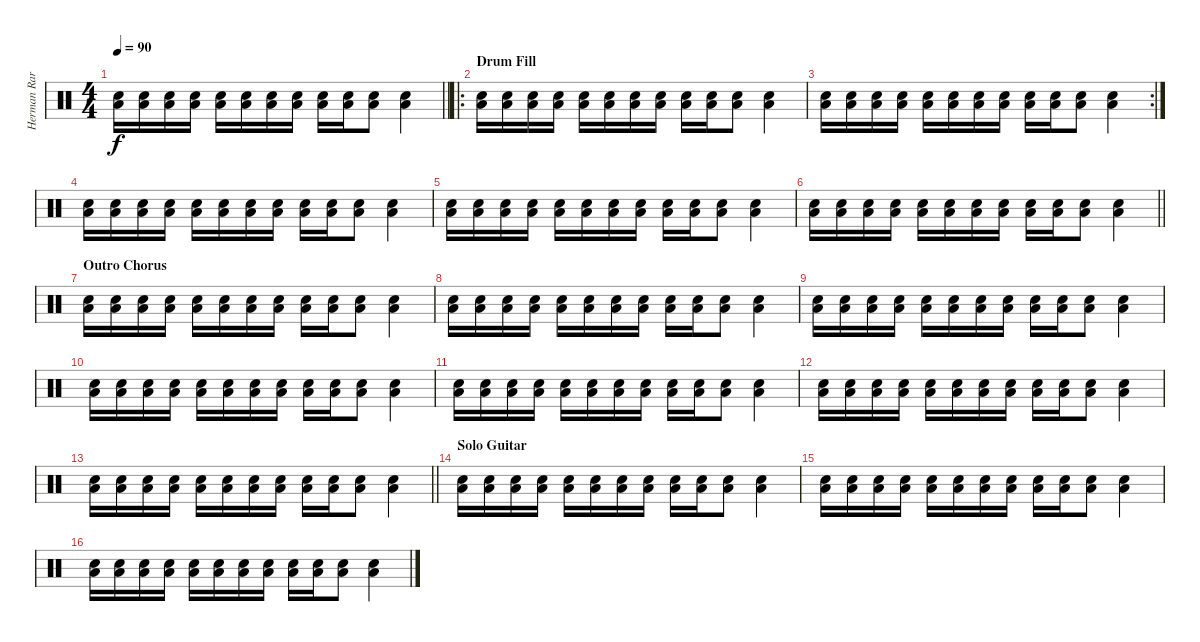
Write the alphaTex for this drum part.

\track ("Herman Rarebell (Drums)" "Herman Rar") {instrument percussion}
\staff {score}
\articulation defaults
\ts (4 4)
\tempo 90
\clef neutral
\barLineRight lightlight
\ks c
("Electric Snare (hit)" "Low Floor Tom (hit)").16{dy f} ("Electric Snare (hit)" "Low Floor Tom (hit)").16 ("Electric Snare (hit)" "Low Floor Tom (hit)").16 ("Electric Snare (hit)" "Low Floor Tom (hit)").16 ("Electric Snare (hit)" "Low Floor Tom (hit)").16 ("Electric Snare (hit)" "Low Floor Tom (hit)").16 ("Electric Snare (hit)" "Low Floor Tom (hit)").16 ("Electric Snare (hit)" "Low Floor Tom (hit)").16 ("Electric Snare (hit)" "Low Floor Tom (hit)").16 ("Electric Snare (hit)" "Low Floor Tom (hit)").16 ("Electric Snare (hit)" "Low Floor Tom (hit)").8 ("Electric Snare (hit)" "Low Floor Tom (hit)").4{bd 240} |
\ro
\section ("" "Drum Fill")
("Electric Snare (hit)" "Low Floor Tom (hit)").16 ("Electric Snare (hit)" "Low Floor Tom (hit)").16 ("Electric Snare (hit)" "Low Floor Tom (hit)").16 ("Electric Snare (hit)" "Low Floor Tom (hit)").16 ("Electric Snare (hit)" "Low Floor Tom (hit)").16 ("Electric Snare (hit)" "Low Floor Tom (hit)").16 ("Electric Snare (hit)" "Low Floor Tom (hit)").16 ("Electric Snare (hit)" "Low Floor Tom (hit)").16 ("Electric Snare (hit)" "Low Floor Tom (hit)").16 ("Electric Snare (hit)" "Low Floor Tom (hit)").16 ("Electric Snare (hit)" "Low Floor Tom (hit)").8 ("Electric Snare (hit)" "Low Floor Tom (hit)").4{bd 240} |
\rc 2
("Electric Snare (hit)" "Low Floor Tom (hit)").16 ("Electric Snare (hit)" "Low Floor Tom (hit)").16 ("Electric Snare (hit)" "Low Floor Tom (hit)").16 ("Electric Snare (hit)" "Low Floor Tom (hit)").16 ("Electric Snare (hit)" "Low Floor Tom (hit)").16 ("Electric Snare (hit)" "Low Floor Tom (hit)").16 ("Electric Snare (hit)" "Low Floor Tom (hit)").16 ("Electric Snare (hit)" "Low Floor Tom (hit)").16 ("Electric Snare (hit)" "Low Floor Tom (hit)").16 ("Electric Snare (hit)" "Low Floor Tom (hit)").16 ("Electric Snare (hit)" "Low Floor Tom (hit)").8 ("Electric Snare (hit)" "Low Floor Tom (hit)").4{bd 240} |
("Electric Snare (hit)" "Low Floor Tom (hit)").16 ("Electric Snare (hit)" "Low Floor Tom (hit)").16 ("Electric Snare (hit)" "Low Floor Tom (hit)").16 ("Electric Snare (hit)" "Low Floor Tom (hit)").16 ("Electric Snare (hit)" "Low Floor Tom (hit)").16 ("Electric Snare (hit)" "Low Floor Tom (hit)").16 ("Electric Snare (hit)" "Low Floor Tom (hit)").16 ("Electric Snare (hit)" "Low Floor Tom (hit)").16 ("Electric Snare (hit)" "Low Floor Tom (hit)").16 ("Electric Snare (hit)" "Low Floor Tom (hit)").16 ("Electric Snare (hit)" "Low Floor Tom (hit)").8 ("Electric Snare (hit)" "Low Floor Tom (hit)").4{bd 240} |
("Electric Snare (hit)" "Low Floor Tom (hit)").16 ("Electric Snare (hit)" "Low Floor Tom (hit)").16 ("Electric Snare (hit)" "Low Floor Tom (hit)").16 ("Electric Snare (hit)" "Low Floor Tom (hit)").16 ("Electric Snare (hit)" "Low Floor Tom (hit)").16 ("Electric Snare (hit)" "Low Floor Tom (hit)").16 ("Electric Snare (hit)" "Low Floor Tom (hit)").16 ("Electric Snare (hit)" "Low Floor Tom (hit)").16 ("Electric Snare (hit)" "Low Floor Tom (hit)").16 ("Electric Snare (hit)" "Low Floor Tom (hit)").16 ("Electric Snare (hit)" "Low Floor Tom (hit)").8 ("Electric Snare (hit)" "Low Floor Tom (hit)").4{bd 240} |
\barLineRight lightlight
("Electric Snare (hit)" "Low Floor Tom (hit)").16 ("Electric Snare (hit)" "Low Floor Tom (hit)").16 ("Electric Snare (hit)" "Low Floor Tom (hit)").16 ("Electric Snare (hit)" "Low Floor Tom (hit)").16 ("Electric Snare (hit)" "Low Floor Tom (hit)").16 ("Electric Snare (hit)" "Low Floor Tom (hit)").16 ("Electric Snare (hit)" "Low Floor Tom (hit)").16 ("Electric Snare (hit)" "Low Floor Tom (hit)").16 ("Electric Snare (hit)" "Low Floor Tom (hit)").16 ("Electric Snare (hit)" "Low Floor Tom (hit)").16 ("Electric Snare (hit)" "Low Floor Tom (hit)").8 ("Electric Snare (hit)" "Low Floor Tom (hit)").4{bd 240} |
\section ("" "Outro Chorus")
("Electric Snare (hit)" "Low Floor Tom (hit)").16 ("Electric Snare (hit)" "Low Floor Tom (hit)").16 ("Electric Snare (hit)" "Low Floor Tom (hit)").16 ("Electric Snare (hit)" "Low Floor Tom (hit)").16 ("Electric Snare (hit)" "Low Floor Tom (hit)").16 ("Electric Snare (hit)" "Low Floor Tom (hit)").16 ("Electric Snare (hit)" "Low Floor Tom (hit)").16 ("Electric Snare (hit)" "Low Floor Tom (hit)").16 ("Electric Snare (hit)" "Low Floor Tom (hit)").16 ("Electric Snare (hit)" "Low Floor Tom (hit)").16 ("Electric Snare (hit)" "Low Floor Tom (hit)").8 ("Electric Snare (hit)" "Low Floor Tom (hit)").4{bd 240} |
("Electric Snare (hit)" "Low Floor Tom (hit)").16 ("Electric Snare (hit)" "Low Floor Tom (hit)").16 ("Electric Snare (hit)" "Low Floor Tom (hit)").16 ("Electric Snare (hit)" "Low Floor Tom (hit)").16 ("Electric Snare (hit)" "Low Floor Tom (hit)").16 ("Electric Snare (hit)" "Low Floor Tom (hit)").16 ("Electric Snare (hit)" "Low Floor Tom (hit)").16 ("Electric Snare (hit)" "Low Floor Tom (hit)").16 ("Electric Snare (hit)" "Low Floor Tom (hit)").16 ("Electric Snare (hit)" "Low Floor Tom (hit)").16 ("Electric Snare (hit)" "Low Floor Tom (hit)").8 ("Electric Snare (hit)" "Low Floor Tom (hit)").4{bd 240} |
("Electric Snare (hit)" "Low Floor Tom (hit)").16 ("Electric Snare (hit)" "Low Floor Tom (hit)").16 ("Electric Snare (hit)" "Low Floor Tom (hit)").16 ("Electric Snare (hit)" "Low Floor Tom (hit)").16 ("Electric Snare (hit)" "Low Floor Tom (hit)").16 ("Electric Snare (hit)" "Low Floor Tom (hit)").16 ("Electric Snare (hit)" "Low Floor Tom (hit)").16 ("Electric Snare (hit)" "Low Floor Tom (hit)").16 ("Electric Snare (hit)" "Low Floor Tom (hit)").16 ("Electric Snare (hit)" "Low Floor Tom (hit)").16 ("Electric Snare (hit)" "Low Floor Tom (hit)").8 ("Electric Snare (hit)" "Low Floor Tom (hit)").4{bd 240} |
("Electric Snare (hit)" "Low Floor Tom (hit)").16 ("Electric Snare (hit)" "Low Floor Tom (hit)").16 ("Electric Snare (hit)" "Low Floor Tom (hit)").16 ("Electric Snare (hit)" "Low Floor Tom (hit)").16 ("Electric Snare (hit)" "Low Floor Tom (hit)").16 ("Electric Snare (hit)" "Low Floor Tom (hit)").16 ("Electric Snare (hit)" "Low Floor Tom (hit)").16 ("Electric Snare (hit)" "Low Floor Tom (hit)").16 ("Electric Snare (hit)" "Low Floor Tom (hit)").16 ("Electric Snare (hit)" "Low Floor Tom (hit)").16 ("Electric Snare (hit)" "Low Floor Tom (hit)").8 ("Electric Snare (hit)" "Low Floor Tom (hit)").4{bd 240} |
("Electric Snare (hit)" "Low Floor Tom (hit)").16 ("Electric Snare (hit)" "Low Floor Tom (hit)").16 ("Electric Snare (hit)" "Low Floor Tom (hit)").16 ("Electric Snare (hit)" "Low Floor Tom (hit)").16 ("Electric Snare (hit)" "Low Floor Tom (hit)").16 ("Electric Snare (hit)" "Low Floor Tom (hit)").16 ("Electric Snare (hit)" "Low Floor Tom (hit)").16 ("Electric Snare (hit)" "Low Floor Tom (hit)").16 ("Electric Snare (hit)" "Low Floor Tom (hit)").16 ("Electric Snare (hit)" "Low Floor Tom (hit)").16 ("Electric Snare (hit)" "Low Floor Tom (hit)").8 ("Electric Snare (hit)" "Low Floor Tom (hit)").4{bd 240} |
("Electric Snare (hit)" "Low Floor Tom (hit)").16 ("Electric Snare (hit)" "Low Floor Tom (hit)").16 ("Electric Snare (hit)" "Low Floor Tom (hit)").16 ("Electric Snare (hit)" "Low Floor Tom (hit)").16 ("Electric Snare (hit)" "Low Floor Tom (hit)").16 ("Electric Snare (hit)" "Low Floor Tom (hit)").16 ("Electric Snare (hit)" "Low Floor Tom (hit)").16 ("Electric Snare (hit)" "Low Floor Tom (hit)").16 ("Electric Snare (hit)" "Low Floor Tom (hit)").16 ("Electric Snare (hit)" "Low Floor Tom (hit)").16 ("Electric Snare (hit)" "Low Floor Tom (hit)").8 ("Electric Snare (hit)" "Low Floor Tom (hit)").4{bd 240} |
\barLineRight lightlight
("Electric Snare (hit)" "Low Floor Tom (hit)").16 ("Electric Snare (hit)" "Low Floor Tom (hit)").16 ("Electric Snare (hit)" "Low Floor Tom (hit)").16 ("Electric Snare (hit)" "Low Floor Tom (hit)").16 ("Electric Snare (hit)" "Low Floor Tom (hit)").16 ("Electric Snare (hit)" "Low Floor Tom (hit)").16 ("Electric Snare (hit)" "Low Floor Tom (hit)").16 ("Electric Snare (hit)" "Low Floor Tom (hit)").16 ("Electric Snare (hit)" "Low Floor Tom (hit)").16 ("Electric Snare (hit)" "Low Floor Tom (hit)").16 ("Electric Snare (hit)" "Low Floor Tom (hit)").8 ("Electric Snare (hit)" "Low Floor Tom (hit)").4{bd 240} |
\section ("" "Solo Guitar")
("Electric Snare (hit)" "Low Floor Tom (hit)").16 ("Electric Snare (hit)" "Low Floor Tom (hit)").16 ("Electric Snare (hit)" "Low Floor Tom (hit)").16 ("Electric Snare (hit)" "Low Floor Tom (hit)").16 ("Electric Snare (hit)" "Low Floor Tom (hit)").16 ("Electric Snare (hit)" "Low Floor Tom (hit)").16 ("Electric Snare (hit)" "Low Floor Tom (hit)").16 ("Electric Snare (hit)" "Low Floor Tom (hit)").16 ("Electric Snare (hit)" "Low Floor Tom (hit)").16 ("Electric Snare (hit)" "Low Floor Tom (hit)").16 ("Electric Snare (hit)" "Low Floor Tom (hit)").8 ("Electric Snare (hit)" "Low Floor Tom (hit)").4{bd 240} |
("Electric Snare (hit)" "Low Floor Tom (hit)").16 ("Electric Snare (hit)" "Low Floor Tom (hit)").16 ("Electric Snare (hit)" "Low Floor Tom (hit)").16 ("Electric Snare (hit)" "Low Floor Tom (hit)").16 ("Electric Snare (hit)" "Low Floor Tom (hit)").16 ("Electric Snare (hit)" "Low Floor Tom (hit)").16 ("Electric Snare (hit)" "Low Floor Tom (hit)").16 ("Electric Snare (hit)" "Low Floor Tom (hit)").16 ("Electric Snare (hit)" "Low Floor Tom (hit)").16 ("Electric Snare (hit)" "Low Floor Tom (hit)").16 ("Electric Snare (hit)" "Low Floor Tom (hit)").8 ("Electric Snare (hit)" "Low Floor Tom (hit)").4{bd 240} |
("Electric Snare (hit)" "Low Floor Tom (hit)").16 ("Electric Snare (hit)" "Low Floor Tom (hit)").16 ("Electric Snare (hit)" "Low Floor Tom (hit)").16 ("Electric Snare (hit)" "Low Floor Tom (hit)").16 ("Electric Snare (hit)" "Low Floor Tom (hit)").16 ("Electric Snare (hit)" "Low Floor Tom (hit)").16 ("Electric Snare (hit)" "Low Floor Tom (hit)").16 ("Electric Snare (hit)" "Low Floor Tom (hit)").16 ("Electric Snare (hit)" "Low Floor Tom (hit)").16 ("Electric Snare (hit)" "Low Floor Tom (hit)").16 ("Electric Snare (hit)" "Low Floor Tom (hit)").8 ("Electric Snare (hit)" "Low Floor Tom (hit)").4{bd 240}
